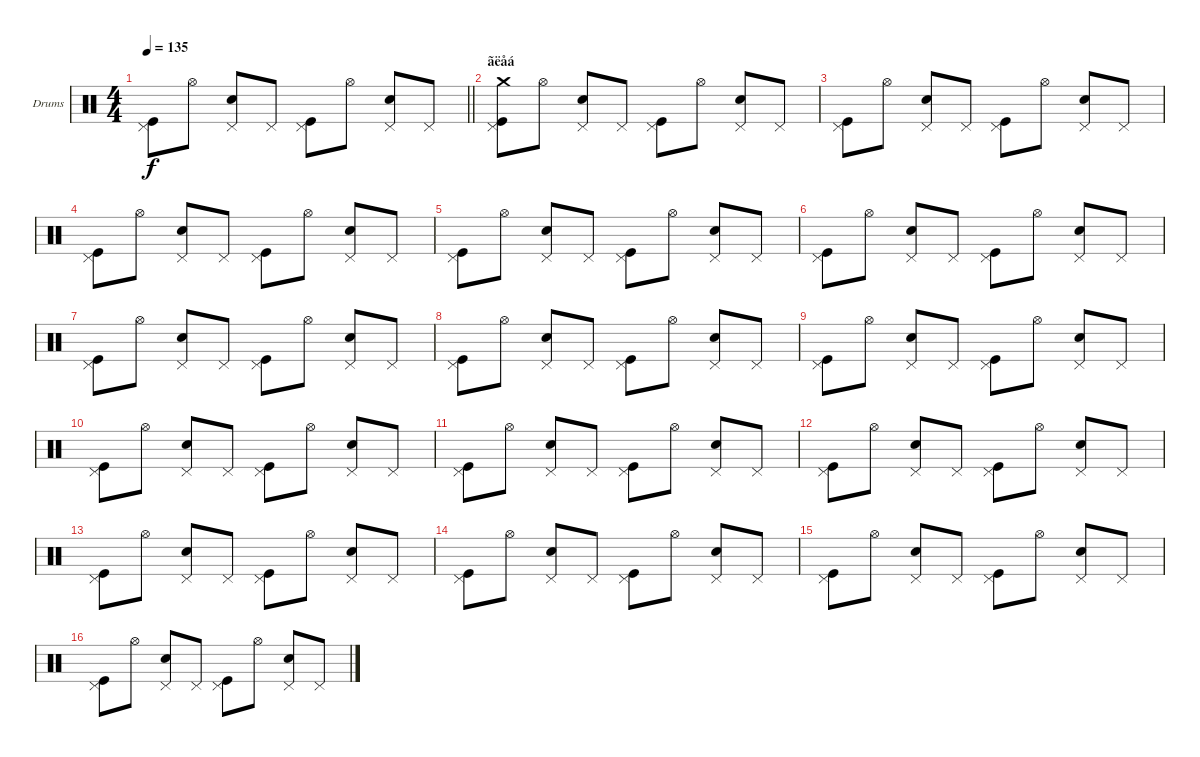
\bracketExtendMode groupsimilarinstruments
\firstSystemTrackNameOrientation horizontal
\otherSystemsTrackNameOrientation horizontal
\track ("Drumkit" "Drums") {instrument percussion}
\staff {score}
\articulation defaults
\ts (4 4)
\tempo 135
\clef neutral
\barLineRight lightlight
\ks c
("Pedal Hi-Hat (hit)" "Kick (hit)").8{dy f} "Hi-Hat (open)".8 ("Pedal Hi-Hat (hit)" "Snare (hit) 2").8 "Pedal Hi-Hat (hit)".8 ("Pedal Hi-Hat (hit)" "Kick (hit)").8 "Hi-Hat (open)".8 ("Pedal Hi-Hat (hit)" "Snare (hit) 2").8 "Pedal Hi-Hat (hit)".8 |
\section ("" "ãëåá")
("Pedal Hi-Hat (hit)" "Kick (hit)" "Crash medium (hit)").8 "Hi-Hat (open)".8 ("Pedal Hi-Hat (hit)" "Snare (hit) 2").8 "Pedal Hi-Hat (hit)".8 ("Pedal Hi-Hat (hit)" "Kick (hit)").8 "Hi-Hat (open)".8 ("Pedal Hi-Hat (hit)" "Snare (hit) 2").8 "Pedal Hi-Hat (hit)".8 |
("Pedal Hi-Hat (hit)" "Kick (hit)").8 "Hi-Hat (open)".8 ("Pedal Hi-Hat (hit)" "Snare (hit) 2").8 "Pedal Hi-Hat (hit)".8 ("Pedal Hi-Hat (hit)" "Kick (hit)").8 "Hi-Hat (open)".8 ("Pedal Hi-Hat (hit)" "Snare (hit) 2").8 "Pedal Hi-Hat (hit)".8 |
("Pedal Hi-Hat (hit)" "Kick (hit)").8 "Hi-Hat (open)".8 ("Pedal Hi-Hat (hit)" "Snare (hit) 2").8 "Pedal Hi-Hat (hit)".8 ("Pedal Hi-Hat (hit)" "Kick (hit)").8 "Hi-Hat (open)".8 ("Pedal Hi-Hat (hit)" "Snare (hit) 2").8 "Pedal Hi-Hat (hit)".8 |
("Pedal Hi-Hat (hit)" "Kick (hit)").8 "Hi-Hat (open)".8 ("Pedal Hi-Hat (hit)" "Snare (hit) 2").8 "Pedal Hi-Hat (hit)".8 ("Pedal Hi-Hat (hit)" "Kick (hit)").8 "Hi-Hat (open)".8 ("Pedal Hi-Hat (hit)" "Snare (hit) 2").8 "Pedal Hi-Hat (hit)".8 |
("Pedal Hi-Hat (hit)" "Kick (hit)").8 "Hi-Hat (open)".8 ("Pedal Hi-Hat (hit)" "Snare (hit) 2").8 "Pedal Hi-Hat (hit)".8 ("Pedal Hi-Hat (hit)" "Kick (hit)").8 "Hi-Hat (open)".8 ("Pedal Hi-Hat (hit)" "Snare (hit) 2").8 "Pedal Hi-Hat (hit)".8 |
("Pedal Hi-Hat (hit)" "Kick (hit)").8 "Hi-Hat (open)".8 ("Pedal Hi-Hat (hit)" "Snare (hit) 2").8 "Pedal Hi-Hat (hit)".8 ("Pedal Hi-Hat (hit)" "Kick (hit)").8 "Hi-Hat (open)".8 ("Pedal Hi-Hat (hit)" "Snare (hit) 2").8 "Pedal Hi-Hat (hit)".8 |
("Pedal Hi-Hat (hit)" "Kick (hit)").8 "Hi-Hat (open)".8 ("Pedal Hi-Hat (hit)" "Snare (hit) 2").8 "Pedal Hi-Hat (hit)".8 ("Pedal Hi-Hat (hit)" "Kick (hit)").8 "Hi-Hat (open)".8 ("Pedal Hi-Hat (hit)" "Snare (hit) 2").8 "Pedal Hi-Hat (hit)".8 |
("Pedal Hi-Hat (hit)" "Kick (hit)").8 "Hi-Hat (open)".8 ("Pedal Hi-Hat (hit)" "Snare (hit) 2").8 "Pedal Hi-Hat (hit)".8 ("Pedal Hi-Hat (hit)" "Kick (hit)").8 "Hi-Hat (open)".8 ("Pedal Hi-Hat (hit)" "Snare (hit) 2").8 "Pedal Hi-Hat (hit)".8 |
("Pedal Hi-Hat (hit)" "Kick (hit)").8 "Hi-Hat (open)".8 ("Pedal Hi-Hat (hit)" "Snare (hit) 2").8 "Pedal Hi-Hat (hit)".8 ("Pedal Hi-Hat (hit)" "Kick (hit)").8 "Hi-Hat (open)".8 ("Pedal Hi-Hat (hit)" "Snare (hit) 2").8 "Pedal Hi-Hat (hit)".8 |
("Pedal Hi-Hat (hit)" "Kick (hit)").8 "Hi-Hat (open)".8 ("Pedal Hi-Hat (hit)" "Snare (hit) 2").8 "Pedal Hi-Hat (hit)".8 ("Pedal Hi-Hat (hit)" "Kick (hit)").8 "Hi-Hat (open)".8 ("Pedal Hi-Hat (hit)" "Snare (hit) 2").8 "Pedal Hi-Hat (hit)".8 |
("Pedal Hi-Hat (hit)" "Kick (hit)").8 "Hi-Hat (open)".8 ("Pedal Hi-Hat (hit)" "Snare (hit) 2").8 "Pedal Hi-Hat (hit)".8 ("Pedal Hi-Hat (hit)" "Kick (hit)").8 "Hi-Hat (open)".8 ("Pedal Hi-Hat (hit)" "Snare (hit) 2").8 "Pedal Hi-Hat (hit)".8 |
("Pedal Hi-Hat (hit)" "Kick (hit)").8 "Hi-Hat (open)".8 ("Pedal Hi-Hat (hit)" "Snare (hit) 2").8 "Pedal Hi-Hat (hit)".8 ("Pedal Hi-Hat (hit)" "Kick (hit)").8 "Hi-Hat (open)".8 ("Pedal Hi-Hat (hit)" "Snare (hit) 2").8 "Pedal Hi-Hat (hit)".8 |
("Pedal Hi-Hat (hit)" "Kick (hit)").8 "Hi-Hat (open)".8 ("Pedal Hi-Hat (hit)" "Snare (hit) 2").8 "Pedal Hi-Hat (hit)".8 ("Pedal Hi-Hat (hit)" "Kick (hit)").8 "Hi-Hat (open)".8 ("Pedal Hi-Hat (hit)" "Snare (hit) 2").8 "Pedal Hi-Hat (hit)".8 |
("Pedal Hi-Hat (hit)" "Kick (hit)").8 "Hi-Hat (open)".8 ("Pedal Hi-Hat (hit)" "Snare (hit) 2").8 "Pedal Hi-Hat (hit)".8 ("Pedal Hi-Hat (hit)" "Kick (hit)").8 "Hi-Hat (open)".8 ("Pedal Hi-Hat (hit)" "Snare (hit) 2").8 "Pedal Hi-Hat (hit)".8 |
("Pedal Hi-Hat (hit)" "Kick (hit)").8 "Hi-Hat (open)".8 ("Pedal Hi-Hat (hit)" "Snare (hit) 2").8 "Pedal Hi-Hat (hit)".8 ("Pedal Hi-Hat (hit)" "Kick (hit)").8 "Hi-Hat (open)".8 ("Pedal Hi-Hat (hit)" "Snare (hit) 2").8 "Pedal Hi-Hat (hit)".8
